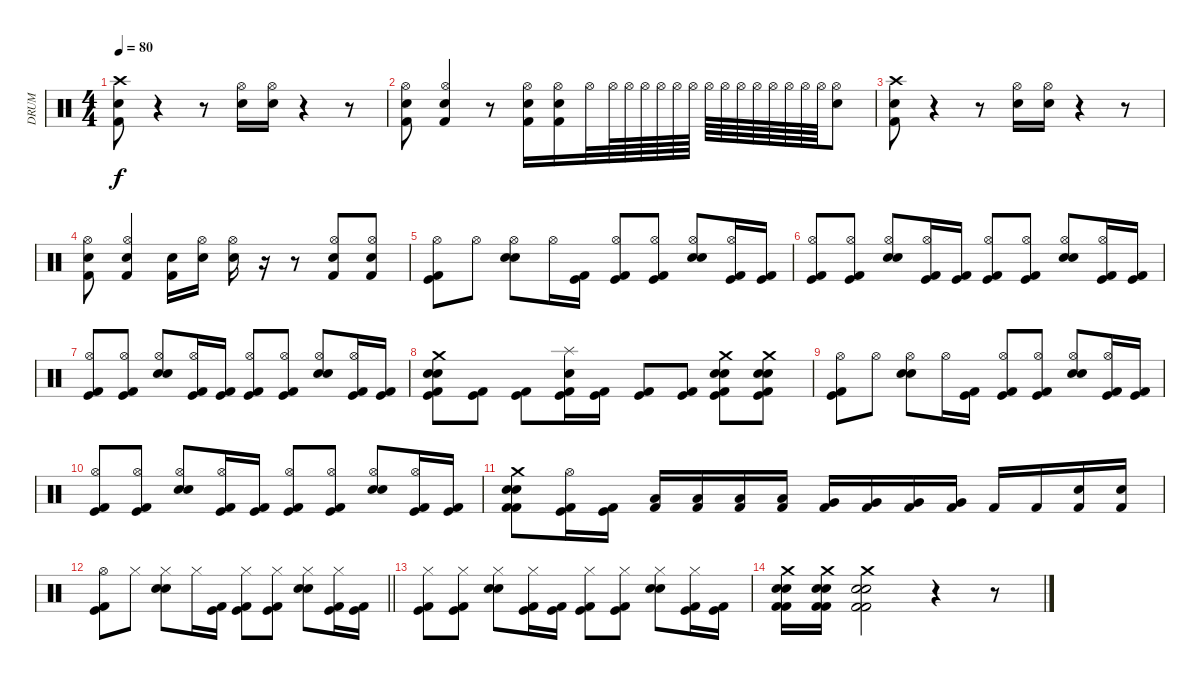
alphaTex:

\track ("DRUM" "DRUM") {instrument percussion}
\staff {score}
\articulation defaults
\ts (4 4)
\tempo 80
\clef neutral
\ks c
("Crash high (hit)" "Snare (hit) 2" "Kick (hit) 2").8{dy f} r.4 r.8 ("Hi-Hat (open)" "Snare (hit) 2").16 ("Hi-Hat (open)" "Snare (hit) 2").16 r.4 r.8 |
("Hi-Hat (open)" "Snare (hit) 2" "Kick (hit) 2").8 ("Hi-Hat (open)" "Electric Snare (hit)" "Kick (hit) 2").4 r.8 ("Hi-Hat (open)" "Snare (hit) 2" "Kick (hit) 2").16 ("Hi-Hat (open)" "Snare (hit) 2" "Kick (hit) 2").16 "Hi-Hat (open)".32 "Hi-Hat (open)".64 "Hi-Hat (open)".64 "Hi-Hat (open)".64 "Hi-Hat (open)".64 "Hi-Hat (open)".64 "Hi-Hat (open)".64 "Hi-Hat (open)".64 "Hi-Hat (open)".64 "Hi-Hat (open)".64 "Hi-Hat (open)".64 "Hi-Hat (open)".64 "Hi-Hat (open)".64 "Hi-Hat (open)".64 "Hi-Hat (open)".64 ("Hi-Hat (open)" "Snare (hit) 2").8 |
("Crash high (hit)" "Snare (hit) 2" "Kick (hit) 2").8 r.4 r.8 ("Hi-Hat (open)" "Snare (hit) 2").16 ("Hi-Hat (open)" "Snare (hit) 2").16 r.4 r.8 |
("Hi-Hat (open)" "Snare (hit) 2" "Kick (hit) 2").8 ("Hi-Hat (open)" "Electric Snare (hit)" "Kick (hit) 2").4 ("Snare (hit) 2" "Kick (hit) 2").16 ("Hi-Hat (open)" "Snare (hit) 2").16 ("Hi-Hat (open)" "Snare (hit) 2").16 r.16 r.8 ("Hi-Hat (open)" "Electric Snare (hit)" "Kick (hit) 2").8 ("Hi-Hat (open)" "Electric Snare (hit)" "Kick (hit) 2").8 |
("Hi-Hat (open)" "Kick (hit) 2" "Kick (hit)").8 "Hi-Hat (open)".8 ("Hi-Hat (open)" "Electric Snare (hit)" "Snare (hit) 2").8 "Hi-Hat (open)".16 ("Kick (hit) 2" "Kick (hit)").16 ("Hi-Hat (open)" "Kick (hit) 2" "Kick (hit)").8 ("Hi-Hat (open)" "Kick (hit) 2" "Kick (hit)").8 ("Hi-Hat (open)" "Electric Snare (hit)" "Snare (hit) 2").8 ("Hi-Hat (open)" "Kick (hit) 2" "Kick (hit)").16 ("Kick (hit) 2" "Kick (hit)").16 |
("Hi-Hat (open)" "Kick (hit) 2" "Kick (hit)").8 ("Hi-Hat (open)" "Kick (hit) 2" "Kick (hit)").8 ("Hi-Hat (open)" "Electric Snare (hit)" "Snare (hit) 2").8 ("Hi-Hat (open)" "Kick (hit) 2" "Kick (hit)").16 ("Kick (hit) 2" "Kick (hit)").16 ("Hi-Hat (open)" "Kick (hit) 2" "Kick (hit)").8 ("Hi-Hat (open)" "Kick (hit) 2" "Kick (hit)").8 ("Hi-Hat (open)" "Electric Snare (hit)" "Snare (hit) 2").8 ("Hi-Hat (open)" "Kick (hit) 2" "Kick (hit)").16 ("Kick (hit) 2" "Kick (hit)").16 |
("Hi-Hat (open)" "Kick (hit) 2" "Kick (hit)").8 ("Hi-Hat (open)" "Kick (hit) 2" "Kick (hit)").8 ("Hi-Hat (open)" "Electric Snare (hit)" "Snare (hit) 2").8 ("Hi-Hat (open)" "Kick (hit) 2" "Kick (hit)").16 ("Kick (hit) 2" "Kick (hit)").16 ("Hi-Hat (open)" "Kick (hit) 2" "Kick (hit)").8 ("Hi-Hat (open)" "Kick (hit) 2" "Kick (hit)").8 ("Hi-Hat (open)" "Electric Snare (hit)" "Snare (hit) 2").8 ("Hi-Hat (open)" "Kick (hit) 2" "Kick (hit)").16 ("Kick (hit) 2" "Kick (hit)").16 |
("Crash medium (hit)" "Electric Snare (hit)" "Snare (hit) 2" "Kick (hit) 2" "Kick (hit)").8 ("Kick (hit) 2" "Kick (hit)").8 ("Kick (hit) 2" "Kick (hit)").8 ("Splash (hit)" "Electric Snare (hit)" "Kick (hit) 2" "Kick (hit)").16 ("Kick (hit) 2" "Kick (hit)").16 ("Kick (hit) 2" "Kick (hit)").8 ("Kick (hit) 2" "Kick (hit)").8 ("Crash medium (hit)" "Electric Snare (hit)" "Snare (hit) 2" "Kick (hit) 2" "Kick (hit)").8 ("Crash medium (hit)" "Electric Snare (hit)" "Snare (hit) 2" "Kick (hit) 2" "Kick (hit)").8 |
("Hi-Hat (open)" "Kick (hit) 2" "Kick (hit)").8 "Hi-Hat (open)".8 ("Hi-Hat (open)" "Electric Snare (hit)" "Snare (hit) 2").8 "Hi-Hat (open)".16 ("Kick (hit) 2" "Kick (hit)").16 ("Hi-Hat (open)" "Kick (hit) 2" "Kick (hit)").8 ("Hi-Hat (open)" "Kick (hit) 2" "Kick (hit)").8 ("Hi-Hat (open)" "Electric Snare (hit)" "Snare (hit) 2").8 ("Hi-Hat (open)" "Kick (hit) 2" "Kick (hit)").16 ("Kick (hit) 2" "Kick (hit)").16 |
("Hi-Hat (open)" "Kick (hit) 2" "Kick (hit)").8 ("Hi-Hat (open)" "Kick (hit) 2" "Kick (hit)").8 ("Hi-Hat (open)" "Electric Snare (hit)" "Snare (hit) 2").8 ("Hi-Hat (open)" "Kick (hit) 2" "Kick (hit)").16 ("Kick (hit) 2" "Kick (hit)").16 ("Hi-Hat (open)" "Kick (hit) 2" "Kick (hit)").8 ("Hi-Hat (open)" "Kick (hit) 2" "Kick (hit)").8 ("Hi-Hat (open)" "Electric Snare (hit)" "Snare (hit) 2").8 ("Hi-Hat (open)" "Kick (hit) 2" "Kick (hit)").16 ("Kick (hit) 2" "Kick (hit)").16 |
("Crash medium (hit)" "Electric Snare (hit)" "Snare (hit) 2" "Kick (hit) 2" "Kick (hit) 2").8 ("Hi-Hat (open)" "Kick (hit) 2" "Kick (hit)").16 ("Kick (hit) 2" "Kick (hit)").16 ("Low Floor Tom (hit)" "Kick (hit) 2").16 ("Low Floor Tom (hit)" "Kick (hit) 2").16 ("Low Floor Tom (hit)" "Kick (hit) 2").16 ("Low Floor Tom (hit)" "Kick (hit) 2").16 ("Very Low Tom (hit)" "Kick (hit) 2").16 ("Very Low Tom (hit)" "Kick (hit) 2").16 ("Very Low Tom (hit)" "Kick (hit) 2").16 ("Very Low Tom (hit)" "Kick (hit) 2").16 "Kick (hit) 2".16 "Kick (hit) 2".16 ("Electric Snare (hit)" "Kick (hit) 2").16 ("Electric Snare (hit)" "Kick (hit) 2").16 |
\barLineRight lightlight
("Hi-Hat (open)" "Kick (hit) 2" "Kick (hit)").8 "Hi-Hat (closed)".8 ("Hi-Hat (closed)" "Electric Snare (hit)" "Snare (hit) 2").8 "Hi-Hat (closed)".16 ("Kick (hit) 2" "Kick (hit)").16 ("Hi-Hat (closed)" "Kick (hit) 2" "Kick (hit)").8 ("Hi-Hat (closed)" "Kick (hit) 2" "Kick (hit)").8 ("Hi-Hat (closed)" "Electric Snare (hit)" "Snare (hit) 2").8 ("Hi-Hat (closed)" "Kick (hit) 2" "Kick (hit)").16 ("Kick (hit) 2" "Kick (hit)").16 |
("Hi-Hat (closed)" "Kick (hit) 2" "Kick (hit)").8 ("Hi-Hat (closed)" "Kick (hit) 2" "Kick (hit)").8 ("Hi-Hat (closed)" "Electric Snare (hit)" "Snare (hit) 2").8 ("Hi-Hat (closed)" "Kick (hit) 2" "Kick (hit)").16 ("Kick (hit) 2" "Kick (hit)").16 ("Hi-Hat (closed)" "Kick (hit) 2" "Kick (hit)").8 ("Hi-Hat (closed)" "Kick (hit) 2" "Kick (hit)").8 ("Hi-Hat (closed)" "Electric Snare (hit)" "Snare (hit) 2").8 ("Hi-Hat (closed)" "Kick (hit) 2" "Kick (hit)").16 ("Kick (hit) 2" "Kick (hit)").16 |
("Crash medium (hit)" "Electric Snare (hit)" "Snare (hit) 2" "Kick (hit) 2" "Kick (hit) 2").16 ("Crash medium (hit)" "Electric Snare (hit)" "Snare (hit) 2" "Kick (hit) 2" "Kick (hit) 2").16 ("Crash medium (hit)" "Electric Snare (hit)" "Snare (hit) 2" "Kick (hit) 2" "Kick (hit) 2").2 r.4 r.8
